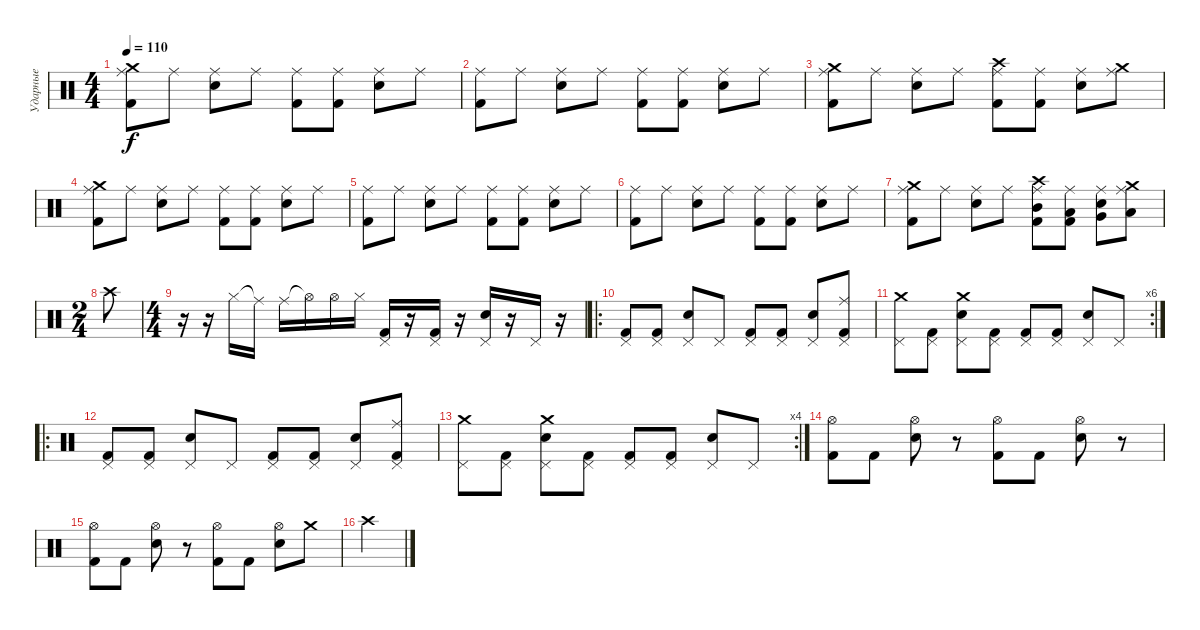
\track ("Ударные" "Ударные") {instrument percussion}
\staff {score}
\articulation defaults
\ts (4 4)
\tempo 110
\clef neutral
\ks c
("Ride (middle)" "Crash medium (hit)" "Kick (hit) 2").8{dy f} "Ride (middle)".8 ("Ride (middle)" "Electric Snare (hit)").8 "Ride (middle)".8 ("Ride (middle)" "Kick (hit) 2").8 ("Ride (middle)" "Kick (hit) 2").8 ("Ride (middle)" "Electric Snare (hit)").8 "Ride (middle)".8 |
("Ride (middle)" "Kick (hit) 2").8 "Ride (middle)".8 ("Ride (middle)" "Electric Snare (hit)").8 "Ride (middle)".8 ("Ride (middle)" "Kick (hit) 2").8 ("Ride (middle)" "Kick (hit) 2").8 ("Ride (middle)" "Electric Snare (hit)").8 "Ride (middle)".8 |
("Ride (middle)" "Crash medium (hit)" "Kick (hit) 2").8 "Ride (middle)".8 ("Ride (middle)" "Electric Snare (hit)").8 "Ride (middle)".8 ("Ride (middle)" "Crash high (hit)" "Kick (hit) 2").8 ("Ride (middle)" "Kick (hit) 2").8 ("Ride (middle)" "Electric Snare (hit)").8 ("Ride (middle)" "Crash medium (hit)").8 |
("Ride (middle)" "Crash medium (hit)" "Kick (hit) 2").8 "Ride (middle)".8 ("Ride (middle)" "Electric Snare (hit)").8 "Ride (middle)".8 ("Ride (middle)" "Kick (hit) 2").8 ("Ride (middle)" "Kick (hit) 2").8 ("Ride (middle)" "Electric Snare (hit)").8 "Ride (middle)".8 |
("Ride (middle)" "Kick (hit) 2").8 "Ride (middle)".8 ("Ride (middle)" "Electric Snare (hit)").8 "Ride (middle)".8 ("Ride (middle)" "Kick (hit) 2").8 ("Ride (middle)" "Kick (hit) 2").8 ("Ride (middle)" "Electric Snare (hit)").8 "Ride (middle)".8 |
("Ride (middle)" "Kick (hit) 2").8 "Ride (middle)".8 ("Ride (middle)" "Electric Snare (hit)").8 "Ride (middle)".8 ("Ride (middle)" "Kick (hit) 2").8 ("Ride (middle)" "Kick (hit) 2").8 ("Ride (middle)" "Electric Snare (hit)").8 "Ride (middle)".8 |
("Ride (middle)" "Crash medium (hit)" "Kick (hit) 2").8 "Ride (middle)".8 ("Ride (middle)" "Electric Snare (hit)").8 "Ride (middle)".8 ("Ride (middle)" "Crash high (hit)" "Mid Tom (hit)" "Kick (hit) 2").8 ("Ride (middle)" "Low Tom (hit)" "Kick (hit) 2").8 ("Ride (middle)" "Electric Snare (hit)" "Very Low Tom (hit)").8 ("Ride (middle)" "Crash medium (hit)" "Low Floor Tom (hit)").8 |
\ts (2 4)
"Crash high (hit)".8 |
\ts (4 4)
r.16 r.16 "Hi-Hat (closed)".16 "Ride (middle)"{t}.16 "Ride (middle)".16 "Hi-Hat (open)"{t}.16 "Hi-Hat (open)".16 "Hi-Hat (closed)".16 ("Pedal Hi-Hat (hit)" "Kick (hit) 2").16 r.16 ("Pedal Hi-Hat (hit)" "Kick (hit) 2").16 r.16 ("Pedal Hi-Hat (hit)" "Electric Snare (hit)").16 r.16 "Pedal Hi-Hat (hit)".16 r.16 |
\ro
("Pedal Hi-Hat (hit)" "Kick (hit) 2").8 ("Pedal Hi-Hat (hit)" "Kick (hit) 2").8 ("Pedal Hi-Hat (hit)" "Electric Snare (hit)").8 "Pedal Hi-Hat (hit)".8 ("Pedal Hi-Hat (hit)" "Kick (hit) 2").8 ("Pedal Hi-Hat (hit)" "Kick (hit) 2").8 ("Pedal Hi-Hat (hit)" "Electric Snare (hit)").8 ("Pedal Hi-Hat (hit)" "Ride (middle)" "Kick (hit) 2").8 |
\rc 6
("Pedal Hi-Hat (hit)" "Crash medium (hit)").8 ("Pedal Hi-Hat (hit)" "Kick (hit) 2").8 ("Pedal Hi-Hat (hit)" "Crash medium (hit)" "Electric Snare (hit)").8 ("Pedal Hi-Hat (hit)" "Kick (hit) 2").8 ("Pedal Hi-Hat (hit)" "Kick (hit) 2").8 ("Pedal Hi-Hat (hit)" "Kick (hit) 2").8 ("Pedal Hi-Hat (hit)" "Electric Snare (hit)").8 "Pedal Hi-Hat (hit)".8 |
\ro
("Pedal Hi-Hat (hit)" "Kick (hit) 2").8 ("Pedal Hi-Hat (hit)" "Kick (hit) 2").8 ("Pedal Hi-Hat (hit)" "Electric Snare (hit)").8 "Pedal Hi-Hat (hit)".8 ("Pedal Hi-Hat (hit)" "Kick (hit) 2").8 ("Pedal Hi-Hat (hit)" "Kick (hit) 2").8 ("Pedal Hi-Hat (hit)" "Electric Snare (hit)").8 ("Pedal Hi-Hat (hit)" "Ride (middle)" "Kick (hit) 2").8 |
\rc 4
("Pedal Hi-Hat (hit)" "Crash medium (hit)").8 ("Pedal Hi-Hat (hit)" "Kick (hit) 2").8 ("Pedal Hi-Hat (hit)" "Crash medium (hit)" "Electric Snare (hit)").8 ("Pedal Hi-Hat (hit)" "Kick (hit) 2").8 ("Pedal Hi-Hat (hit)" "Kick (hit) 2").8 ("Pedal Hi-Hat (hit)" "Kick (hit) 2").8 ("Pedal Hi-Hat (hit)" "Electric Snare (hit)").8 "Pedal Hi-Hat (hit)".8 |
("Hi-Hat (open)" "Kick (hit) 2").8 "Kick (hit) 2".8 ("Hi-Hat (open)" "Electric Snare (hit)").8 r.8 ("Hi-Hat (open)" "Kick (hit) 2").8 "Kick (hit) 2".8 ("Hi-Hat (open)" "Electric Snare (hit)").8 r.8 |
("Hi-Hat (open)" "Kick (hit) 2").8 "Kick (hit) 2".8 ("Hi-Hat (open)" "Electric Snare (hit)").8 r.8 ("Hi-Hat (open)" "Kick (hit) 2").8 "Kick (hit) 2".8 ("Hi-Hat (open)" "Electric Snare (hit)").8 "Crash medium (hit)".8 |
"Crash high (hit)".4
